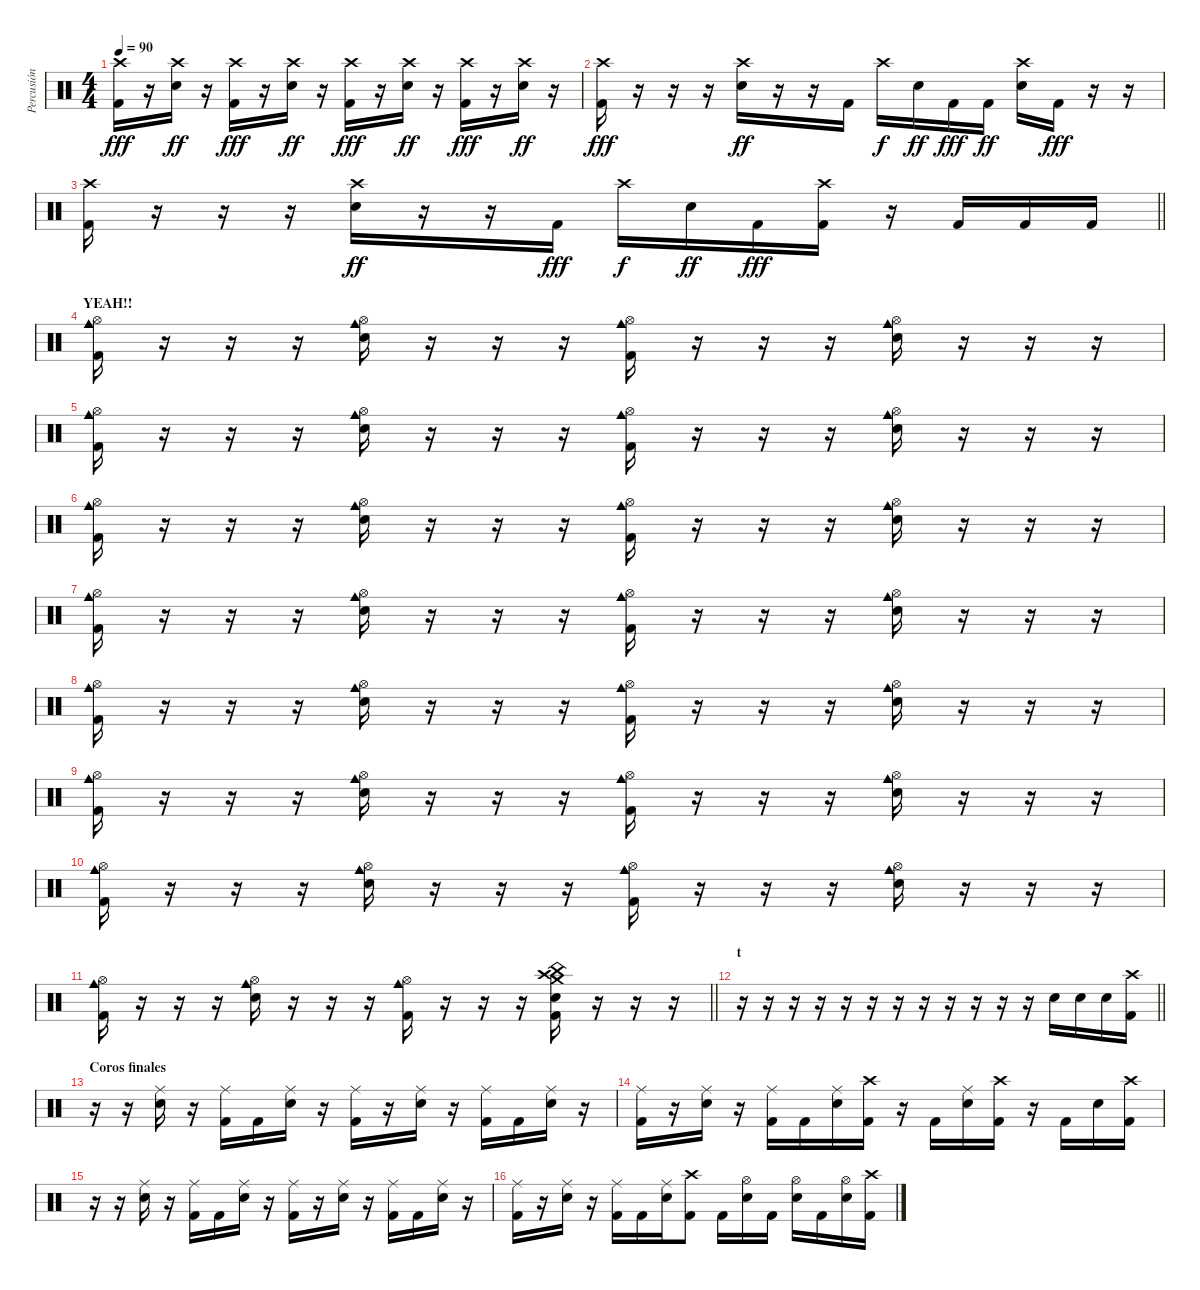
\track ("Percusión" "Percusión") {instrument percussion}
\staff {score}
\articulation defaults
\ts (4 4)
\tempo 90
\clef neutral
\ks c
("Crash high (hit)" "Kick (hit) 2").16{dy fff} r.16 ("Crash high (hit)" "Electric Snare (hit)").16{dy ff} r.16 ("Crash high (hit)" "Kick (hit) 2").16{dy fff} r.16 ("Crash high (hit)" "Electric Snare (hit)").16{dy ff} r.16 ("Crash high (hit)" "Kick (hit) 2").16{dy fff} r.16 ("Crash high (hit)" "Electric Snare (hit)").16{dy ff} r.16 ("Crash high (hit)" "Kick (hit) 2").16{dy fff} r.16 ("Crash high (hit)" "Electric Snare (hit)").16{dy ff} r.16 |
("Crash high (hit)" "Kick (hit) 2").16{dy fff} r.16 r.16 r.16 ("Crash high (hit)" "Electric Snare (hit)").16{dy ff} r.16 r.16 "Kick (hit) 2".16 "Crash high (hit)".16{dy f} "Electric Snare (hit)".16{dy ff} "Kick (hit) 2".16{dy fff} "Kick (hit) 2".16{dy ff} ("Crash high (hit)" "Electric Snare (hit)").16 "Kick (hit) 2".16{dy fff} r.16 r.16 |
\barLineRight lightlight
("Crash high (hit)" "Kick (hit) 2").16 r.16 r.16 r.16 ("Crash high (hit)" "Electric Snare (hit)").16{dy ff} r.16 r.16 "Kick (hit) 2".16{dy fff} "Crash high (hit)".16{dy f} "Electric Snare (hit)".16{dy ff} "Kick (hit) 2".16{dy fff} ("Crash high (hit)" "Kick (hit) 2").16 r.16 "Kick (hit) 2".16 "Kick (hit) 2".16 "Kick (hit) 2".16 |
\section ("" "YEAH!!")
("Hi-Hat (open)" "Cowbell medium (hit)" "Kick (hit) 2").16 r.16 r.16 r.16 ("Hi-Hat (open)" "Cowbell medium (hit)" "Electric Snare (hit)").16 r.16 r.16 r.16 ("Hi-Hat (open)" "Cowbell medium (hit)" "Kick (hit) 2").16 r.16 r.16 r.16 ("Hi-Hat (open)" "Cowbell medium (hit)" "Electric Snare (hit)").16 r.16 r.16 r.16 |
("Hi-Hat (open)" "Cowbell medium (hit)" "Kick (hit) 2").16 r.16 r.16 r.16 ("Hi-Hat (open)" "Cowbell medium (hit)" "Electric Snare (hit)").16 r.16 r.16 r.16 ("Hi-Hat (open)" "Cowbell medium (hit)" "Kick (hit) 2").16 r.16 r.16 r.16 ("Hi-Hat (open)" "Cowbell medium (hit)" "Electric Snare (hit)").16 r.16 r.16 r.16 |
("Hi-Hat (open)" "Cowbell medium (hit)" "Kick (hit) 2").16 r.16 r.16 r.16 ("Hi-Hat (open)" "Cowbell medium (hit)" "Electric Snare (hit)").16 r.16 r.16 r.16 ("Hi-Hat (open)" "Cowbell medium (hit)" "Kick (hit) 2").16 r.16 r.16 r.16 ("Hi-Hat (open)" "Cowbell medium (hit)" "Electric Snare (hit)").16 r.16 r.16 r.16 |
("Hi-Hat (open)" "Cowbell medium (hit)" "Kick (hit) 2").16 r.16 r.16 r.16 ("Hi-Hat (open)" "Cowbell medium (hit)" "Electric Snare (hit)").16 r.16 r.16 r.16 ("Hi-Hat (open)" "Cowbell medium (hit)" "Kick (hit) 2").16 r.16 r.16 r.16 ("Hi-Hat (open)" "Cowbell medium (hit)" "Electric Snare (hit)").16 r.16 r.16 r.16 |
("Hi-Hat (open)" "Cowbell medium (hit)" "Kick (hit) 2").16 r.16 r.16 r.16 ("Hi-Hat (open)" "Cowbell medium (hit)" "Electric Snare (hit)").16 r.16 r.16 r.16 ("Hi-Hat (open)" "Cowbell medium (hit)" "Kick (hit) 2").16 r.16 r.16 r.16 ("Hi-Hat (open)" "Cowbell medium (hit)" "Electric Snare (hit)").16 r.16 r.16 r.16 |
("Hi-Hat (open)" "Cowbell medium (hit)" "Kick (hit) 2").16 r.16 r.16 r.16 ("Hi-Hat (open)" "Cowbell medium (hit)" "Electric Snare (hit)").16 r.16 r.16 r.16 ("Hi-Hat (open)" "Cowbell medium (hit)" "Kick (hit) 2").16 r.16 r.16 r.16 ("Hi-Hat (open)" "Cowbell medium (hit)" "Electric Snare (hit)").16 r.16 r.16 r.16 |
("Hi-Hat (open)" "Cowbell medium (hit)" "Kick (hit) 2").16 r.16 r.16 r.16 ("Hi-Hat (open)" "Cowbell medium (hit)" "Electric Snare (hit)").16 r.16 r.16 r.16 ("Hi-Hat (open)" "Cowbell medium (hit)" "Kick (hit) 2").16 r.16 r.16 r.16 ("Hi-Hat (open)" "Cowbell medium (hit)" "Electric Snare (hit)").16 r.16 r.16 r.16 |
\barLineRight lightlight
("Hi-Hat (open)" "Cowbell medium (hit)" "Kick (hit) 2").16 r.16 r.16 r.16 ("Hi-Hat (open)" "Cowbell medium (hit)" "Electric Snare (hit)").16 r.16 r.16 r.16 ("Hi-Hat (open)" "Cowbell medium (hit)" "Kick (hit) 2").16 r.16 r.16 r.16 ("China (hit)" "Crash medium (hit)" "Electric Snare (hit)" "Crash high (hit)" "Kick (hit) 2").16 r.16 r.16 r.16 |
\section ("" "t")
\barLineRight lightlight
r.16 r.16 r.16 r.16 r.16 r.16 r.16 r.16 r.16 r.16 r.16 r.16 "Electric Snare (hit)".16 "Electric Snare (hit)".16 "Electric Snare (hit)".16 ("Crash high (hit)" "Kick (hit) 2").16 |
\section ("" "Coros finales")
r.16 r.16 ("Ride (middle)" "Electric Snare (hit)").16 r.16 ("Ride (middle)" "Kick (hit) 2").16 "Kick (hit) 2".16 ("Ride (middle)" "Electric Snare (hit)").16 r.16 ("Ride (middle)" "Kick (hit) 2").16 r.16 ("Ride (middle)" "Electric Snare (hit)").16 r.16 ("Ride (middle)" "Kick (hit) 2").16 "Kick (hit) 2".16 ("Ride (middle)" "Electric Snare (hit)").16 r.16 |
("Ride (middle)" "Kick (hit) 2").16 r.16 ("Ride (middle)" "Electric Snare (hit)").16 r.16 ("Ride (middle)" "Kick (hit) 2").16 "Kick (hit) 2".16 ("Ride (middle)" "Electric Snare (hit)").16 ("Crash high (hit)" "Kick (hit) 2").16 r.16 "Kick (hit) 2".16 ("Ride (middle)" "Electric Snare (hit)").16 ("Crash high (hit)" "Kick (hit) 2").16 r.16 "Kick (hit) 2".16 "Electric Snare (hit)".16 ("Crash high (hit)" "Kick (hit) 2").16 |
r.16 r.16 ("Ride (middle)" "Electric Snare (hit)").16 r.16 ("Ride (middle)" "Kick (hit) 2").16 "Kick (hit) 2".16 ("Ride (middle)" "Electric Snare (hit)").16 r.16 ("Ride (middle)" "Kick (hit) 2").16 r.16 ("Ride (middle)" "Electric Snare (hit)").16 r.16 ("Ride (middle)" "Kick (hit) 2").16 "Kick (hit) 2".16 ("Ride (middle)" "Electric Snare (hit)").16 r.16 |
("Ride (middle)" "Kick (hit) 2").16 r.16 ("Ride (middle)" "Electric Snare (hit)").16 r.16 ("Ride (middle)" "Kick (hit) 2").16 "Kick (hit) 2".16 ("Ride (middle)" "Electric Snare (hit)").16 ("Crash high (hit)" "Kick (hit) 2").8 "Kick (hit) 2".16 ("Hi-Hat (open)" "Electric Snare (hit)").16 "Kick (hit) 2".16 ("Hi-Hat (open)" "Electric Snare (hit)").16 "Kick (hit) 2".16 ("Hi-Hat (open)" "Electric Snare (hit)").16 ("Crash high (hit)" "Kick (hit) 2").16
